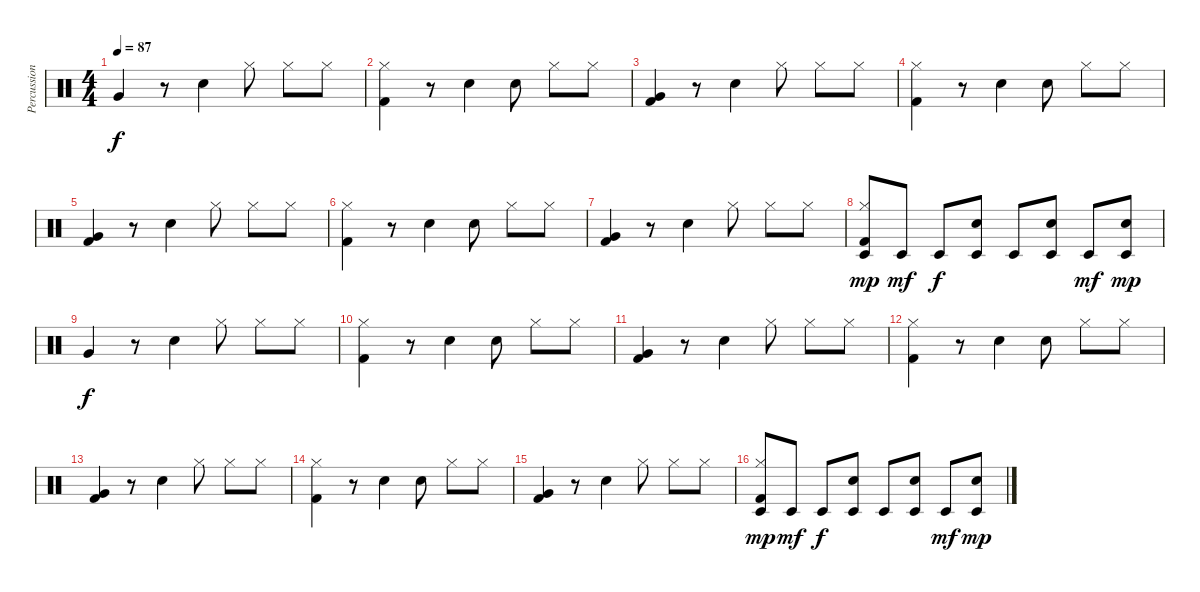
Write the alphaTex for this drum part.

\track ("Percussion" "Percussion") {instrument percussion}
\staff {score}
\articulation defaults
\ts (4 4)
\tempo 87
\clef neutral
\ks c "Very Low Tom (hit)".4{dy f}
r.8 "Electric Snare (hit)".4 "Hi-Hat (closed)".8 "Hi-Hat (closed)".8 "Hi-Hat (closed)".8 |
("Hi-Hat (closed)" "Kick (hit) 2").4 r.8 "Electric Snare (hit)".4 "Electric Snare (hit)".8 "Hi-Hat (closed)".8 "Hi-Hat (closed)".8 |
("Very Low Tom (hit)" "Kick (hit) 2").4 r.8 "Electric Snare (hit)".4 "Hi-Hat (closed)".8 "Hi-Hat (closed)".8 "Hi-Hat (closed)".8 |
("Hi-Hat (closed)" "Kick (hit) 2").4 r.8 "Electric Snare (hit)".4 "Electric Snare (hit)".8 "Hi-Hat (closed)".8 "Hi-Hat (closed)".8 |
("Very Low Tom (hit)" "Kick (hit) 2").4 r.8 "Electric Snare (hit)".4 "Hi-Hat (closed)".8 "Hi-Hat (closed)".8 "Hi-Hat (closed)".8 |
("Hi-Hat (closed)" "Kick (hit) 2").4 r.8 "Electric Snare (hit)".4 "Electric Snare (hit)".8 "Hi-Hat (closed)".8 "Hi-Hat (closed)".8 |
("Very Low Tom (hit)" "Kick (hit) 2").4 r.8 "Electric Snare (hit)".4 "Hi-Hat (closed)".8 "Hi-Hat (closed)".8 "Hi-Hat (closed)".8 |
("Hi-Hat (closed)" "Timbale low (hit)" "Kick (hit) 2").8{dy mp} "Timbale low (hit)".8{dy mf} "Timbale low (hit)".8{dy f} ("Electric Snare (hit)" "Timbale low (hit)").8 "Timbale low (hit)".8 ("Electric Snare (hit)" "Timbale low (hit)").8 "Timbale low (hit)".8{dy mf} ("Electric Snare (hit)" "Timbale low (hit)").8{dy mp} |
"Very Low Tom (hit)".4{dy f} r.8 "Electric Snare (hit)".4 "Hi-Hat (closed)".8 "Hi-Hat (closed)".8 "Hi-Hat (closed)".8 |
("Hi-Hat (closed)" "Kick (hit) 2").4 r.8 "Electric Snare (hit)".4 "Electric Snare (hit)".8 "Hi-Hat (closed)".8 "Hi-Hat (closed)".8 |
("Very Low Tom (hit)" "Kick (hit) 2").4 r.8 "Electric Snare (hit)".4 "Hi-Hat (closed)".8 "Hi-Hat (closed)".8 "Hi-Hat (closed)".8 |
("Hi-Hat (closed)" "Kick (hit) 2").4 r.8 "Electric Snare (hit)".4 "Electric Snare (hit)".8 "Hi-Hat (closed)".8 "Hi-Hat (closed)".8 |
("Very Low Tom (hit)" "Kick (hit) 2").4 r.8 "Electric Snare (hit)".4 "Hi-Hat (closed)".8 "Hi-Hat (closed)".8 "Hi-Hat (closed)".8 |
("Hi-Hat (closed)" "Kick (hit) 2").4 r.8 "Electric Snare (hit)".4 "Electric Snare (hit)".8 "Hi-Hat (closed)".8 "Hi-Hat (closed)".8 |
("Very Low Tom (hit)" "Kick (hit) 2").4 r.8 "Electric Snare (hit)".4 "Hi-Hat (closed)".8 "Hi-Hat (closed)".8 "Hi-Hat (closed)".8 |
("Hi-Hat (closed)" "Timbale low (hit)" "Kick (hit) 2").8{dy mp} "Timbale low (hit)".8{dy mf} "Timbale low (hit)".8{dy f} ("Electric Snare (hit)" "Timbale low (hit)").8 "Timbale low (hit)".8 ("Electric Snare (hit)" "Timbale low (hit)").8 "Timbale low (hit)".8{dy mf} ("Electric Snare (hit)" "Timbale low (hit)").8{dy mp}
